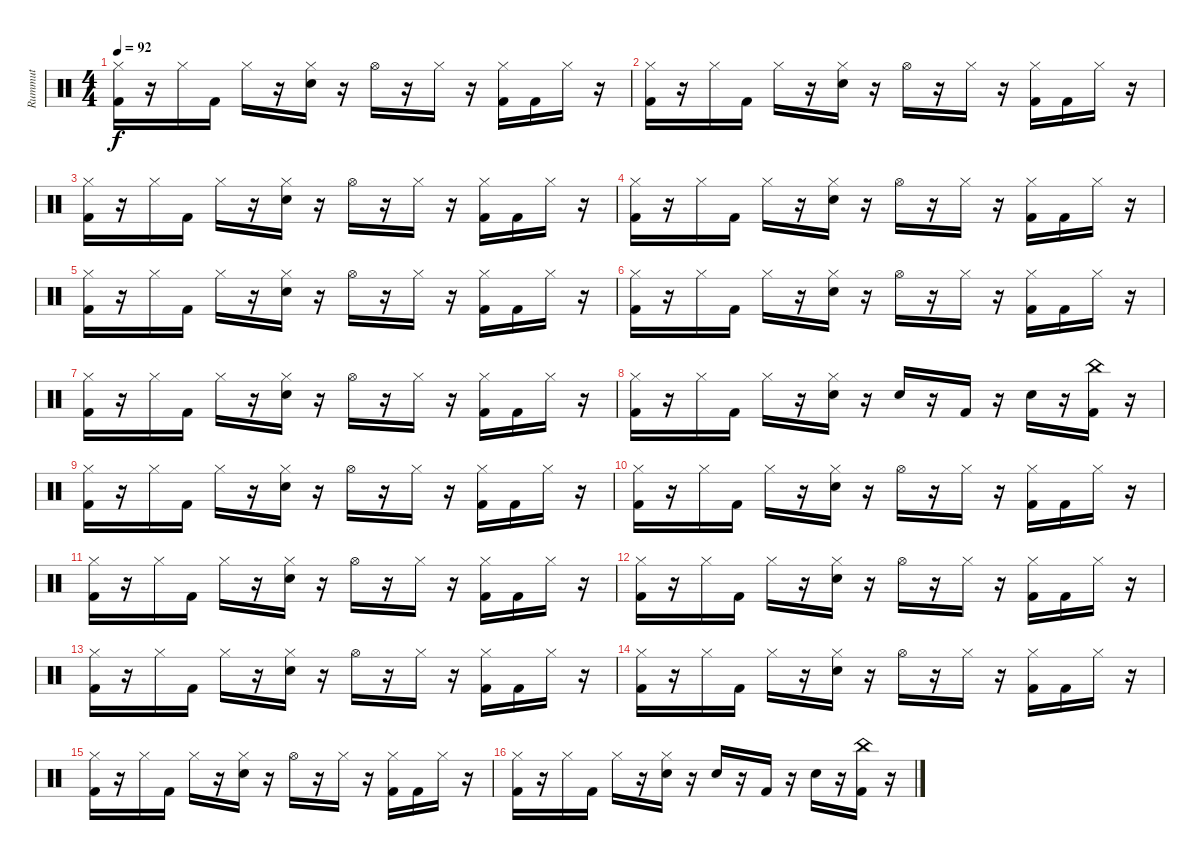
\track ("Rummut" "Rummut") {instrument percussion}
\staff {score}
\articulation defaults
\ts (4 4)
\tempo 92
\clef neutral
\ks c
("Hi-Hat (closed)" "Kick (hit) 2").16{dy f} r.16 "Hi-Hat (closed)".16 "Kick (hit) 2".16 "Hi-Hat (closed)".16 r.16 ("Hi-Hat (closed)" "Snare (hit) 2").16 r.16 "Hi-Hat (open)".16 r.16 "Hi-Hat (closed)".16 r.16 ("Hi-Hat (closed)" "Kick (hit) 2").16 "Kick (hit) 2".16 "Hi-Hat (closed)".16 r.16 |
("Hi-Hat (closed)" "Kick (hit) 2").16 r.16 "Hi-Hat (closed)".16 "Kick (hit) 2".16 "Hi-Hat (closed)".16 r.16 ("Hi-Hat (closed)" "Snare (hit) 2").16 r.16 "Hi-Hat (open)".16 r.16 "Hi-Hat (closed)".16 r.16 ("Hi-Hat (closed)" "Kick (hit) 2").16 "Kick (hit) 2".16 "Hi-Hat (closed)".16 r.16 |
("Hi-Hat (closed)" "Kick (hit) 2").16 r.16 "Hi-Hat (closed)".16 "Kick (hit) 2".16 "Hi-Hat (closed)".16 r.16 ("Hi-Hat (closed)" "Snare (hit) 2").16 r.16 "Hi-Hat (open)".16 r.16 "Hi-Hat (closed)".16 r.16 ("Hi-Hat (closed)" "Kick (hit) 2").16 "Kick (hit) 2".16 "Hi-Hat (closed)".16 r.16 |
("Hi-Hat (closed)" "Kick (hit) 2").16 r.16 "Hi-Hat (closed)".16 "Kick (hit) 2".16 "Hi-Hat (closed)".16 r.16 ("Hi-Hat (closed)" "Snare (hit) 2").16 r.16 "Hi-Hat (open)".16 r.16 "Hi-Hat (closed)".16 r.16 ("Hi-Hat (closed)" "Kick (hit) 2").16 "Kick (hit) 2".16 "Hi-Hat (closed)".16 r.16 |
("Hi-Hat (closed)" "Kick (hit) 2").16 r.16 "Hi-Hat (closed)".16 "Kick (hit) 2".16 "Hi-Hat (closed)".16 r.16 ("Hi-Hat (closed)" "Snare (hit) 2").16 r.16 "Hi-Hat (open)".16 r.16 "Hi-Hat (closed)".16 r.16 ("Hi-Hat (closed)" "Kick (hit) 2").16 "Kick (hit) 2".16 "Hi-Hat (closed)".16 r.16 |
("Hi-Hat (closed)" "Kick (hit) 2").16 r.16 "Hi-Hat (closed)".16 "Kick (hit) 2".16 "Hi-Hat (closed)".16 r.16 ("Hi-Hat (closed)" "Snare (hit) 2").16 r.16 "Hi-Hat (open)".16 r.16 "Hi-Hat (closed)".16 r.16 ("Hi-Hat (closed)" "Kick (hit) 2").16 "Kick (hit) 2".16 "Hi-Hat (closed)".16 r.16 |
("Hi-Hat (closed)" "Kick (hit) 2").16 r.16 "Hi-Hat (closed)".16 "Kick (hit) 2".16 "Hi-Hat (closed)".16 r.16 ("Hi-Hat (closed)" "Snare (hit) 2").16 r.16 "Hi-Hat (open)".16 r.16 "Hi-Hat (closed)".16 r.16 ("Hi-Hat (closed)" "Kick (hit) 2").16 "Kick (hit) 2".16 "Hi-Hat (closed)".16 r.16 |
("Hi-Hat (closed)" "Kick (hit) 2").16 r.16 "Hi-Hat (closed)".16 "Kick (hit) 2".16 "Hi-Hat (closed)".16 r.16 ("Hi-Hat (closed)" "Snare (hit) 2").16 r.16 "Snare (hit) 2".16 r.16 "Kick (hit) 2".16 r.16 "Snare (hit) 2".16 r.16 ("China (hit)" "Kick (hit) 2").16 r.16 |
("Hi-Hat (closed)" "Kick (hit) 2").16 r.16 "Hi-Hat (closed)".16 "Kick (hit) 2".16 "Hi-Hat (closed)".16 r.16 ("Hi-Hat (closed)" "Snare (hit) 2").16 r.16 "Hi-Hat (open)".16 r.16 "Hi-Hat (closed)".16 r.16 ("Hi-Hat (closed)" "Kick (hit) 2").16 "Kick (hit) 2".16 "Hi-Hat (closed)".16 r.16 |
("Hi-Hat (closed)" "Kick (hit) 2").16 r.16 "Hi-Hat (closed)".16 "Kick (hit) 2".16 "Hi-Hat (closed)".16 r.16 ("Hi-Hat (closed)" "Snare (hit) 2").16 r.16 "Hi-Hat (open)".16 r.16 "Hi-Hat (closed)".16 r.16 ("Hi-Hat (closed)" "Kick (hit) 2").16 "Kick (hit) 2".16 "Hi-Hat (closed)".16 r.16 |
("Hi-Hat (closed)" "Kick (hit) 2").16 r.16 "Hi-Hat (closed)".16 "Kick (hit) 2".16 "Hi-Hat (closed)".16 r.16 ("Hi-Hat (closed)" "Snare (hit) 2").16 r.16 "Hi-Hat (open)".16 r.16 "Hi-Hat (closed)".16 r.16 ("Hi-Hat (closed)" "Kick (hit) 2").16 "Kick (hit) 2".16 "Hi-Hat (closed)".16 r.16 |
("Hi-Hat (closed)" "Kick (hit) 2").16 r.16 "Hi-Hat (closed)".16 "Kick (hit) 2".16 "Hi-Hat (closed)".16 r.16 ("Hi-Hat (closed)" "Snare (hit) 2").16 r.16 "Hi-Hat (open)".16 r.16 "Hi-Hat (closed)".16 r.16 ("Hi-Hat (closed)" "Kick (hit) 2").16 "Kick (hit) 2".16 "Hi-Hat (closed)".16 r.16 |
("Hi-Hat (closed)" "Kick (hit) 2").16 r.16 "Hi-Hat (closed)".16 "Kick (hit) 2".16 "Hi-Hat (closed)".16 r.16 ("Hi-Hat (closed)" "Snare (hit) 2").16 r.16 "Hi-Hat (open)".16 r.16 "Hi-Hat (closed)".16 r.16 ("Hi-Hat (closed)" "Kick (hit) 2").16 "Kick (hit) 2".16 "Hi-Hat (closed)".16 r.16 |
("Hi-Hat (closed)" "Kick (hit) 2").16 r.16 "Hi-Hat (closed)".16 "Kick (hit) 2".16 "Hi-Hat (closed)".16 r.16 ("Hi-Hat (closed)" "Snare (hit) 2").16 r.16 "Hi-Hat (open)".16 r.16 "Hi-Hat (closed)".16 r.16 ("Hi-Hat (closed)" "Kick (hit) 2").16 "Kick (hit) 2".16 "Hi-Hat (closed)".16 r.16 |
("Hi-Hat (closed)" "Kick (hit) 2").16 r.16 "Hi-Hat (closed)".16 "Kick (hit) 2".16 "Hi-Hat (closed)".16 r.16 ("Hi-Hat (closed)" "Snare (hit) 2").16 r.16 "Hi-Hat (open)".16 r.16 "Hi-Hat (closed)".16 r.16 ("Hi-Hat (closed)" "Kick (hit) 2").16 "Kick (hit) 2".16 "Hi-Hat (closed)".16 r.16 |
("Hi-Hat (closed)" "Kick (hit) 2").16 r.16 "Hi-Hat (closed)".16 "Kick (hit) 2".16 "Hi-Hat (closed)".16 r.16 ("Hi-Hat (closed)" "Snare (hit) 2").16 r.16 "Snare (hit) 2".16 r.16 "Kick (hit) 2".16 r.16 "Snare (hit) 2".16 r.16 ("China (hit)" "Kick (hit) 2").16 r.16
